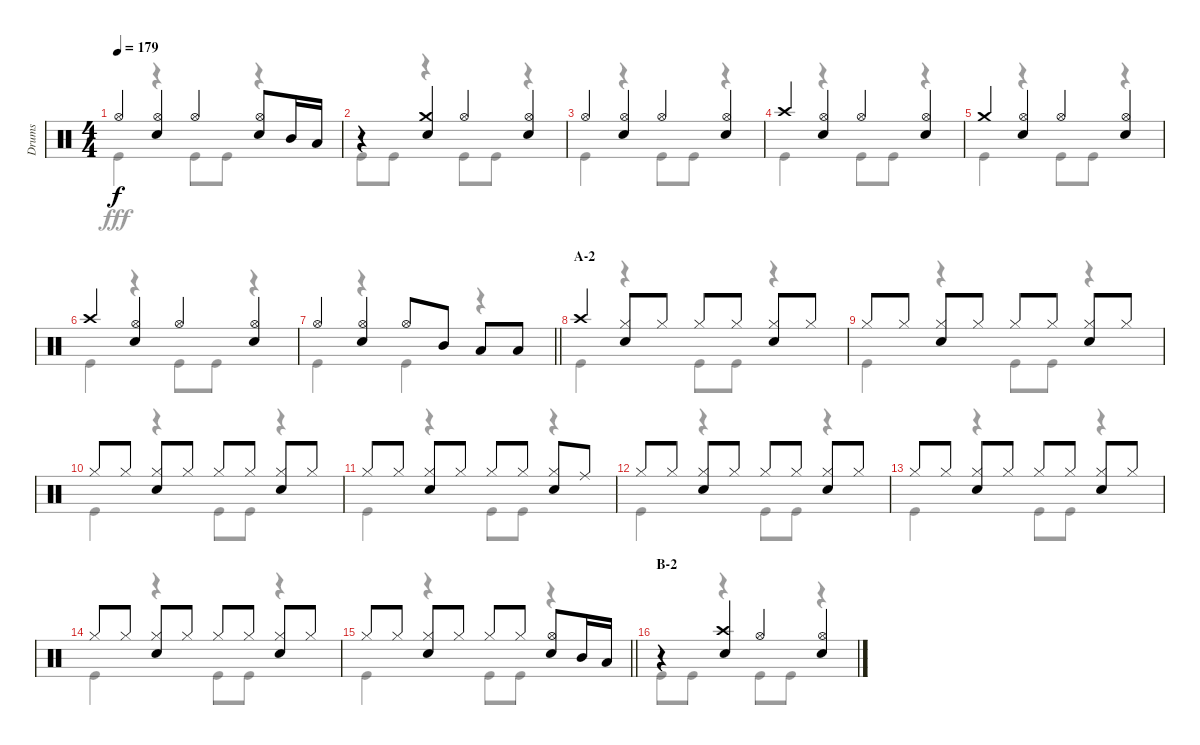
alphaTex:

\track ("Drums" "Drums") {instrument percussion}
\staff {score}
\articulation defaults
\voice
\ts (4 4)
\tempo 179
\clef neutral
\ks c "Hi-Hat (open)".4{dy f}
("Hi-Hat (open)" "Snare (hit) 2").4 "Hi-Hat (open)".4 ("Hi-Hat (open)" "Snare (hit) 2").8 "Mid Tom (hit)".16 "Low Tom (hit)".16 |
r.4 ("Crash medium (hit)" "Snare (hit) 2").4 "Hi-Hat (open)".4 ("Hi-Hat (open)" "Snare (hit) 2").4 |
"Hi-Hat (open)".4 ("Hi-Hat (open)" "Snare (hit) 2").4 "Hi-Hat (open)".4 ("Hi-Hat (open)" "Snare (hit) 2").4 |
"Crash high (hit)".4 ("Hi-Hat (open)" "Snare (hit) 2").4 "Hi-Hat (open)".4 ("Hi-Hat (open)" "Snare (hit) 2").4 |
"Crash medium (hit)".4 ("Hi-Hat (open)" "Snare (hit) 2").4 "Hi-Hat (open)".4 ("Hi-Hat (open)" "Snare (hit) 2").4 |
"Crash high (hit)".4 ("Hi-Hat (open)" "Snare (hit) 2").4 "Hi-Hat (open)".4 ("Hi-Hat (open)" "Snare (hit) 2").4 |
\barLineRight lightlight "Hi-Hat (open)".4
("Hi-Hat (open)" "Snare (hit) 2").4 "Hi-Hat (open)".8 "Mid Tom (hit)".8 "Low Tom (hit)".8 "Low Tom (hit)".8 |
\section ("" "A-2")
"Crash high (hit)".4 ("Snare (hit) 2" "Hi-Hat (closed)").8 "Hi-Hat (closed)".8 "Hi-Hat (closed)".8 "Hi-Hat (closed)".8 ("Hi-Hat (closed)" "Snare (hit) 2").8 "Hi-Hat (closed)".8 |
"Hi-Hat (closed)".8 "Hi-Hat (closed)".8 ("Snare (hit) 2" "Hi-Hat (closed)").8 "Hi-Hat (closed)".8 "Hi-Hat (closed)".8 "Hi-Hat (closed)".8 ("Hi-Hat (closed)" "Snare (hit) 2").8 "Hi-Hat (closed)".8 |
"Hi-Hat (closed)".8 "Hi-Hat (closed)".8 ("Snare (hit) 2" "Hi-Hat (closed)").8 "Hi-Hat (closed)".8 "Hi-Hat (closed)".8 "Hi-Hat (closed)".8 ("Hi-Hat (closed)" "Snare (hit) 2").8 "Hi-Hat (closed)".8 |
"Hi-Hat (closed)".8 "Hi-Hat (closed)".8 ("Snare (hit) 2" "Hi-Hat (closed)").8 "Hi-Hat (closed)".8 "Hi-Hat (closed)".8 "Hi-Hat (closed)".8 ("Hi-Hat (closed)" "Snare (hit) 2").8 "Ride (middle)".8 |
"Hi-Hat (closed)".8 "Hi-Hat (closed)".8 ("Snare (hit) 2" "Hi-Hat (closed)").8 "Hi-Hat (closed)".8 "Hi-Hat (closed)".8 "Hi-Hat (closed)".8 ("Hi-Hat (closed)" "Snare (hit) 2").8 "Hi-Hat (closed)".8 |
"Hi-Hat (closed)".8 "Hi-Hat (closed)".8 ("Snare (hit) 2" "Hi-Hat (closed)").8 "Hi-Hat (closed)".8 "Hi-Hat (closed)".8 "Hi-Hat (closed)".8 ("Hi-Hat (closed)" "Snare (hit) 2").8 "Hi-Hat (closed)".8 |
"Hi-Hat (closed)".8 "Hi-Hat (closed)".8 ("Snare (hit) 2" "Hi-Hat (closed)").8 "Hi-Hat (closed)".8 "Hi-Hat (closed)".8 "Hi-Hat (closed)".8 ("Hi-Hat (closed)" "Snare (hit) 2").8 "Hi-Hat (closed)".8 |
\barLineRight lightlight "Hi-Hat (closed)".8 "Hi-Hat (closed)".8
("Snare (hit) 2" "Hi-Hat (closed)").8 "Hi-Hat (closed)".8 "Hi-Hat (closed)".8 "Hi-Hat (closed)".8 ("Hi-Hat (open)" "Snare (hit) 2").8 "Mid Tom (hit)".16 "Low Tom (hit)".16 |
\section ("" "B-2")
r.4 ("Crash high (hit)" "Snare (hit) 2").4 "Hi-Hat (open)".4 ("Hi-Hat (open)" "Snare (hit) 2").4
\voice
\clef neutral
\ottava regular
\simile none
\ks c "Kick (hit)".4{dy fff}
r.4 "Kick (hit)".8 "Kick (hit)".8 r.4 |
"Kick (hit)".8 "Kick (hit)".8 r.4 "Kick (hit)".8 "Kick (hit)".8 r.4 |
"Kick (hit)".4 r.4 "Kick (hit)".8 "Kick (hit)".8 r.4 |
"Kick (hit)".4 r.4 "Kick (hit)".8 "Kick (hit)".8 r.4 |
"Kick (hit)".4 r.4 "Kick (hit)".8 "Kick (hit)".8 r.4 |
"Kick (hit)".4 r.4 "Kick (hit)".8 "Kick (hit)".8 r.4 |
\barLineRight lightlight "Kick (hit)".4
r.4 "Kick (hit)".4 r.4 |
"Kick (hit)".4 r.4 "Kick (hit)".8 "Kick (hit)".8 r.4 |
"Kick (hit)".4 r.4 "Kick (hit)".8 "Kick (hit)".8 r.4 |
"Kick (hit)".4 r.4 "Kick (hit)".8 "Kick (hit)".8 r.4 |
"Kick (hit)".4 r.4 "Kick (hit)".8 "Kick (hit)".8 r.4 |
"Kick (hit)".4 r.4 "Kick (hit)".8 "Kick (hit)".8 r.4 |
"Kick (hit)".4 r.4 "Kick (hit)".8 "Kick (hit)".8 r.4 |
"Kick (hit)".4 r.4 "Kick (hit)".8 "Kick (hit)".8 r.4 |
\barLineRight lightlight "Kick (hit)".4
r.4 "Kick (hit)".8 "Kick (hit)".8 r.4 |
"Kick (hit)".8 "Kick (hit)".8 r.4 "Kick (hit)".8 "Kick (hit)".8 r.4
